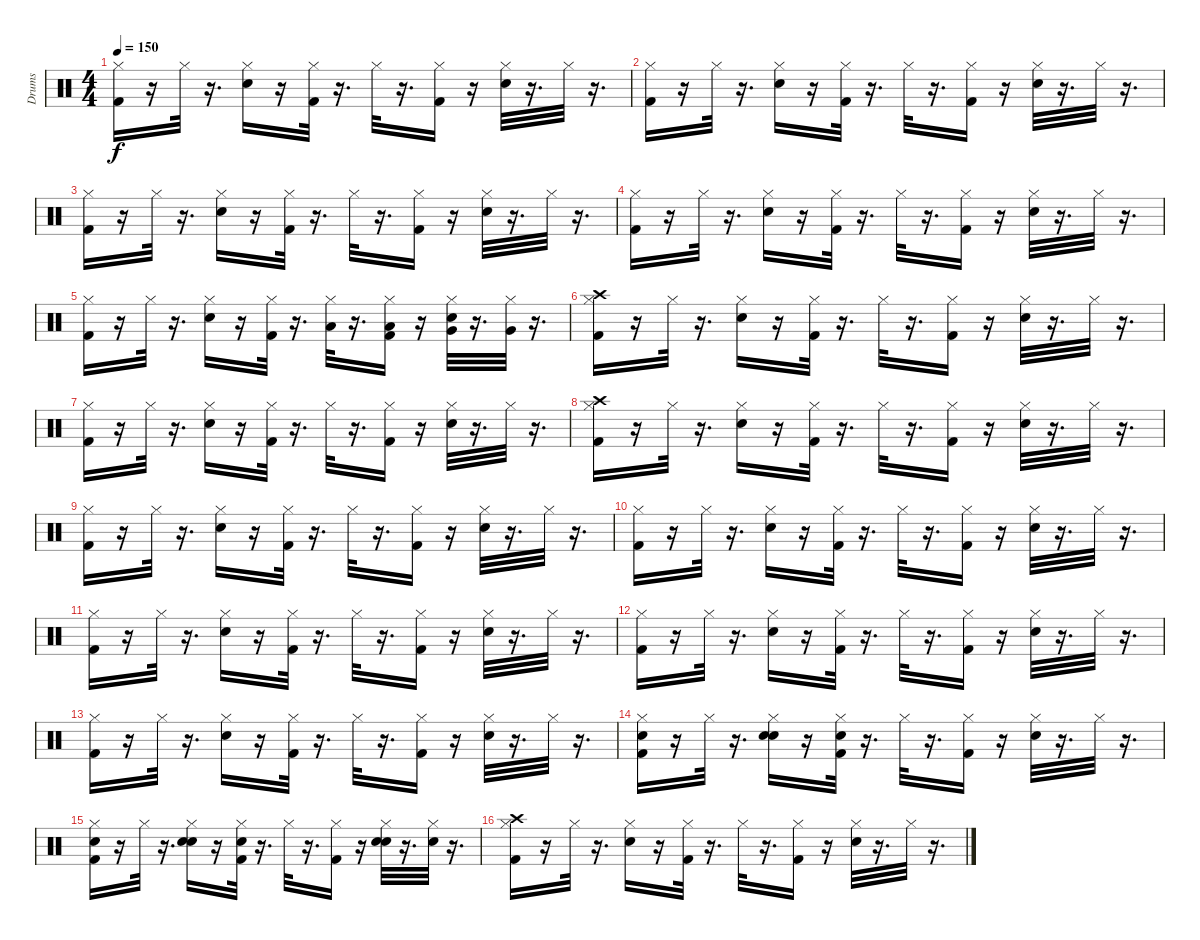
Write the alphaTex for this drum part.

\track ("Drums" "Drums") {instrument percussion}
\staff {score}
\articulation defaults
\ts (4 4)
\tempo 150
\clef neutral
\ks c
("Kick (hit) 2" "Hi-Hat (closed)").16{dy f} r.16 "Hi-Hat (closed)".32 r.16{d} ("Electric Snare (hit)" "Hi-Hat (closed)").16 r.16 ("Kick (hit) 2" "Hi-Hat (closed)").32 r.16{d} "Hi-Hat (closed)".32 r.16{d} ("Kick (hit) 2" "Hi-Hat (closed)").16 r.16 ("Electric Snare (hit)" "Hi-Hat (closed)").32 r.16{d} "Hi-Hat (closed)".32 r.16{d} |
("Hi-Hat (closed)" "Kick (hit) 2").16 r.16 "Hi-Hat (closed)".32 r.16{d} ("Electric Snare (hit)" "Hi-Hat (closed)").16 r.16 ("Kick (hit) 2" "Hi-Hat (closed)").32 r.16{d} "Hi-Hat (closed)".32 r.16{d} ("Kick (hit) 2" "Hi-Hat (closed)").16 r.16 ("Electric Snare (hit)" "Hi-Hat (closed)").32 r.16{d} "Hi-Hat (closed)".32 r.16{d} |
("Kick (hit) 2" "Hi-Hat (closed)").16 r.16 "Hi-Hat (closed)".32 r.16{d} ("Electric Snare (hit)" "Hi-Hat (closed)").16 r.16 ("Kick (hit) 2" "Hi-Hat (closed)").32 r.16{d} "Hi-Hat (closed)".32 r.16{d} ("Kick (hit) 2" "Hi-Hat (closed)").16 r.16 ("Electric Snare (hit)" "Hi-Hat (closed)").32 r.16{d} "Hi-Hat (closed)".32 r.16{d} |
("Kick (hit) 2" "Hi-Hat (closed)").16 r.16 "Hi-Hat (closed)".32 r.16{d} ("Electric Snare (hit)" "Hi-Hat (closed)").16 r.16 ("Kick (hit) 2" "Hi-Hat (closed)").32 r.16{d} "Hi-Hat (closed)".32 r.16{d} ("Kick (hit) 2" "Hi-Hat (closed)").16 r.16 ("Electric Snare (hit)" "Hi-Hat (closed)").32 r.16{d} "Hi-Hat (closed)".32 r.16{d} |
("Kick (hit) 2" "Hi-Hat (closed)").16 r.16 "Hi-Hat (closed)".32 r.16{d} ("Electric Snare (hit)" "Hi-Hat (closed)").16 r.16 ("Kick (hit) 2" "Hi-Hat (closed)").32 r.16{d} ("Hi-Hat (closed)" "Low Tom (hit)").32 r.16{d} ("Kick (hit) 2" "Hi-Hat (closed)" "Low Tom (hit)").16 r.16 ("Electric Snare (hit)" "Hi-Hat (closed)" "Very Low Tom (hit)").32 r.16{d} ("Hi-Hat (closed)" "Very Low Tom (hit)").32 r.16{d} |
("Kick (hit) 2" "Hi-Hat (closed)" "Crash high (hit)").16 r.16 "Hi-Hat (closed)".32 r.16{d} ("Electric Snare (hit)" "Hi-Hat (closed)").16 r.16 ("Kick (hit) 2" "Hi-Hat (closed)").32 r.16{d} "Hi-Hat (closed)".32 r.16{d} ("Kick (hit) 2" "Hi-Hat (closed)").16 r.16 ("Electric Snare (hit)" "Hi-Hat (closed)").32 r.16{d} "Hi-Hat (closed)".32 r.16{d} |
("Kick (hit) 2" "Hi-Hat (closed)").16 r.16 "Hi-Hat (closed)".32 r.16{d} ("Electric Snare (hit)" "Hi-Hat (closed)").16 r.16 ("Kick (hit) 2" "Hi-Hat (closed)").32 r.16{d} "Hi-Hat (closed)".32 r.16{d} ("Kick (hit) 2" "Hi-Hat (closed)").16 r.16 ("Electric Snare (hit)" "Hi-Hat (closed)").32 r.16{d} "Hi-Hat (closed)".32 r.16{d} |
("Hi-Hat (closed)" "Crash high (hit)" "Kick (hit) 2").16 r.16 "Hi-Hat (closed)".32 r.16{d} ("Electric Snare (hit)" "Hi-Hat (closed)").16 r.16 ("Kick (hit) 2" "Hi-Hat (closed)").32 r.16{d} "Hi-Hat (closed)".32 r.16{d} ("Kick (hit) 2" "Hi-Hat (closed)").16 r.16 ("Electric Snare (hit)" "Hi-Hat (closed)").32 r.16{d} "Hi-Hat (closed)".32 r.16{d} |
("Kick (hit) 2" "Hi-Hat (closed)").16 r.16 "Hi-Hat (closed)".32 r.16{d} ("Electric Snare (hit)" "Hi-Hat (closed)").16 r.16 ("Kick (hit) 2" "Hi-Hat (closed)").32 r.16{d} "Hi-Hat (closed)".32 r.16{d} ("Kick (hit) 2" "Hi-Hat (closed)").16 r.16 ("Electric Snare (hit)" "Hi-Hat (closed)").32 r.16{d} "Hi-Hat (closed)".32 r.16{d} |
("Kick (hit) 2" "Hi-Hat (closed)").16 r.16 "Hi-Hat (closed)".32 r.16{d} ("Electric Snare (hit)" "Hi-Hat (closed)").16 r.16 ("Kick (hit) 2" "Hi-Hat (closed)").32 r.16{d} "Hi-Hat (closed)".32 r.16{d} ("Kick (hit) 2" "Hi-Hat (closed)").16 r.16 ("Electric Snare (hit)" "Hi-Hat (closed)").32 r.16{d} "Hi-Hat (closed)".32 r.16{d} |
("Kick (hit) 2" "Hi-Hat (closed)").16 r.16 "Hi-Hat (closed)".32 r.16{d} ("Electric Snare (hit)" "Hi-Hat (closed)").16 r.16 ("Kick (hit) 2" "Hi-Hat (closed)").32 r.16{d} "Hi-Hat (closed)".32 r.16{d} ("Kick (hit) 2" "Hi-Hat (closed)").16 r.16 ("Electric Snare (hit)" "Hi-Hat (closed)").32 r.16{d} "Hi-Hat (closed)".32 r.16{d} |
("Hi-Hat (closed)" "Kick (hit) 2").16 r.16 "Hi-Hat (closed)".32 r.16{d} ("Electric Snare (hit)" "Hi-Hat (closed)").16 r.16 ("Kick (hit) 2" "Hi-Hat (closed)").32 r.16{d} "Hi-Hat (closed)".32 r.16{d} ("Kick (hit) 2" "Hi-Hat (closed)").16 r.16 ("Electric Snare (hit)" "Hi-Hat (closed)").32 r.16{d} "Hi-Hat (closed)".32 r.16{d} |
("Kick (hit) 2" "Hi-Hat (closed)").16 r.16 "Hi-Hat (closed)".32 r.16{d} ("Electric Snare (hit)" "Hi-Hat (closed)").16 r.16 ("Kick (hit) 2" "Hi-Hat (closed)").32 r.16{d} "Hi-Hat (closed)".32 r.16{d} ("Kick (hit) 2" "Hi-Hat (closed)").16 r.16 ("Electric Snare (hit)" "Hi-Hat (closed)").32 r.16{d} "Hi-Hat (closed)".32 r.16{d} |
("Kick (hit) 2" "Hand Clap (hit)" "Hi-Hat (closed)").16 r.16 "Hi-Hat (closed)".32 r.16{d} ("Electric Snare (hit)" "Hand Clap (hit)" "Hi-Hat (closed)").16 r.16 ("Kick (hit) 2" "Hand Clap (hit)" "Hi-Hat (closed)").32 r.16{d} "Hi-Hat (closed)".32 r.16{d} ("Kick (hit) 2" "Hi-Hat (closed)").16 r.16 ("Electric Snare (hit)" "Hi-Hat (closed)").32 r.16{d} "Hi-Hat (closed)".32 r.16{d} |
("Kick (hit) 2" "Hand Clap (hit)" "Hi-Hat (closed)").16 r.16 "Hi-Hat (closed)".32 r.16{d} ("Electric Snare (hit)" "Hand Clap (hit)" "Hi-Hat (closed)").16 r.16 ("Kick (hit) 2" "Hand Clap (hit)" "Hi-Hat (closed)").32 r.16{d} "Hi-Hat (closed)".32 r.16{d} ("Kick (hit) 2" "Hi-Hat (closed)").16 r.16 ("Electric Snare (hit)" "Hand Clap (hit)" "Hi-Hat (closed)").32 r.16{d} ("Hand Clap (hit)" "Hi-Hat (closed)").32 r.16{d} |
("Hi-Hat (closed)" "Crash high (hit)" "Kick (hit) 2").16 r.16 "Hi-Hat (closed)".32 r.16{d} ("Electric Snare (hit)" "Hi-Hat (closed)").16 r.16 ("Kick (hit) 2" "Hi-Hat (closed)").32 r.16{d} "Hi-Hat (closed)".32 r.16{d} ("Kick (hit) 2" "Hi-Hat (closed)").16 r.16 ("Electric Snare (hit)" "Hi-Hat (closed)").32 r.16{d} "Hi-Hat (closed)".32 r.16{d}
